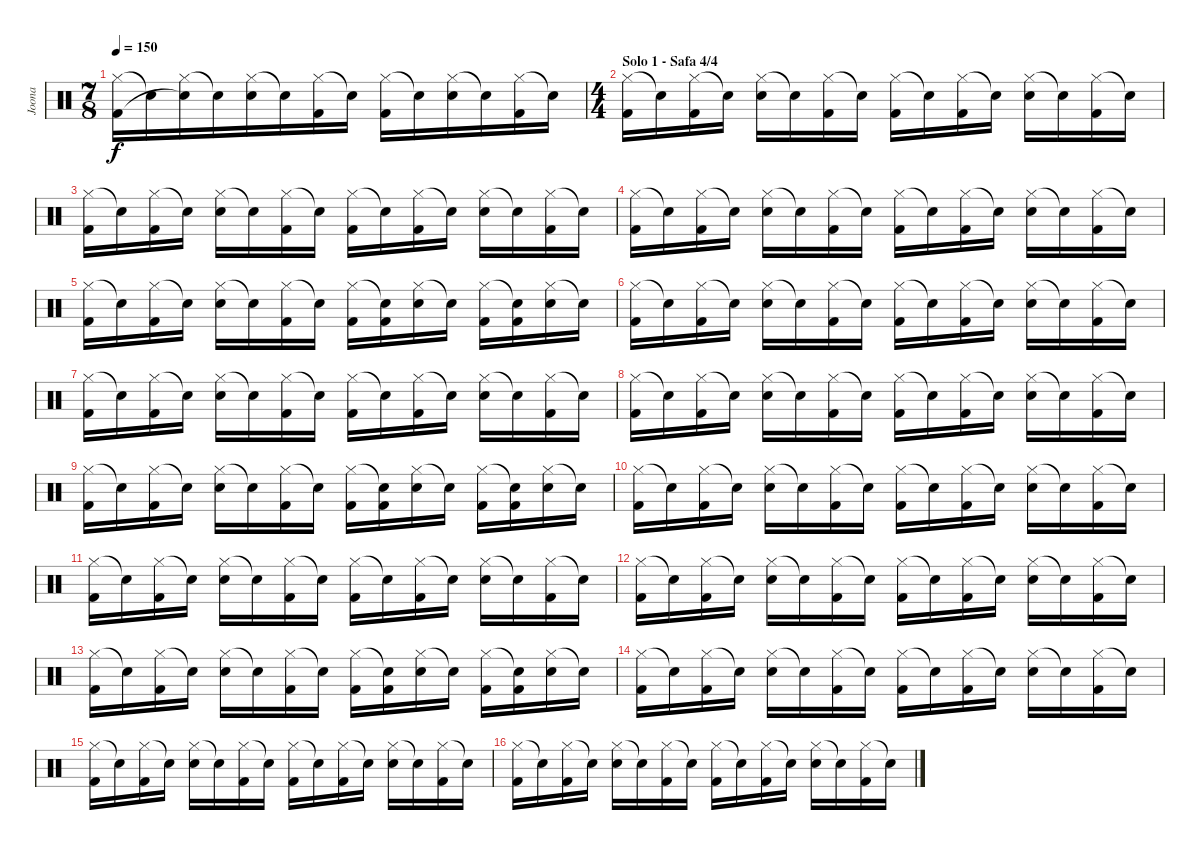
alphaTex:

\track ("Joona" "Joona") {instrument percussion}
\staff {score}
\articulation defaults
\ts (7 8)
\tempo 150
\clef neutral
\ks c
("Hi-Hat (closed)" "Kick (hit) 2").16{dy f} "Snare (hit)"{t}.16 ("Hi-Hat (closed)" "Snare (hit)"{t}).16 "Snare (hit)"{t}.16 ("Hi-Hat (closed)" "Snare (hit) 2").16 "Snare (hit)"{t}.16 ("Hi-Hat (closed)" "Kick (hit) 2").16 "Snare (hit)"{t}.16 ("Hi-Hat (closed)" "Kick (hit) 2").16 "Snare (hit)"{t}.16 ("Hi-Hat (closed)" "Snare (hit) 2").16 "Snare (hit)"{t}.16 ("Hi-Hat (closed)" "Kick (hit) 2").16 "Snare (hit)"{t}.16 |
\ts (4 4)
\section ("" "Solo 1 - Safa 4/4")
("Hi-Hat (closed)" "Kick (hit) 2").16 "Snare (hit)"{t}.16 ("Hi-Hat (closed)" "Kick (hit) 2").16 "Snare (hit)"{t}.16 ("Hi-Hat (closed)" "Snare (hit) 2").16 "Snare (hit)"{t}.16 ("Hi-Hat (closed)" "Kick (hit) 2").16 "Snare (hit)"{t}.16 ("Hi-Hat (closed)" "Kick (hit) 2").16 "Snare (hit)"{t}.16 ("Hi-Hat (closed)" "Kick (hit) 2").16 "Snare (hit)"{t}.16 ("Hi-Hat (closed)" "Snare (hit) 2").16 "Snare (hit)"{t}.16 ("Hi-Hat (closed)" "Kick (hit) 2").16 "Snare (hit)"{t}.16 |
("Hi-Hat (closed)" "Kick (hit) 2").16 "Snare (hit)"{t}.16 ("Hi-Hat (closed)" "Kick (hit) 2").16 "Snare (hit)"{t}.16 ("Hi-Hat (closed)" "Snare (hit) 2").16 "Snare (hit)"{t}.16 ("Hi-Hat (closed)" "Kick (hit) 2").16 "Snare (hit)"{t}.16 ("Hi-Hat (closed)" "Kick (hit) 2").16 "Snare (hit)"{t}.16 ("Hi-Hat (closed)" "Kick (hit) 2").16 "Snare (hit)"{t}.16 ("Hi-Hat (closed)" "Snare (hit) 2").16 "Snare (hit)"{t}.16 ("Hi-Hat (closed)" "Kick (hit) 2").16 "Snare (hit)"{t}.16 |
("Hi-Hat (closed)" "Kick (hit) 2").16 "Snare (hit)"{t}.16 ("Hi-Hat (closed)" "Kick (hit) 2").16 "Snare (hit)"{t}.16 ("Hi-Hat (closed)" "Snare (hit) 2").16 "Snare (hit)"{t}.16 ("Hi-Hat (closed)" "Kick (hit) 2").16 "Snare (hit)"{t}.16 ("Hi-Hat (closed)" "Kick (hit) 2").16 "Snare (hit)"{t}.16 ("Hi-Hat (closed)" "Kick (hit) 2").16 "Snare (hit)"{t}.16 ("Hi-Hat (closed)" "Snare (hit) 2").16 "Snare (hit)"{t}.16 ("Hi-Hat (closed)" "Kick (hit) 2").16 "Snare (hit)"{t}.16 |
("Hi-Hat (closed)" "Kick (hit) 2").16 "Snare (hit)"{t}.16 ("Hi-Hat (closed)" "Kick (hit) 2").16 "Snare (hit)"{t}.16 ("Hi-Hat (closed)" "Snare (hit) 2").16 "Snare (hit)"{t}.16 ("Hi-Hat (closed)" "Kick (hit) 2").16 "Snare (hit)"{t}.16 ("Hi-Hat (closed)" "Kick (hit) 2").16 ("Snare (hit)"{t} "Kick (hit) 2").16 ("Hi-Hat (closed)" "Snare (hit) 2").16 "Snare (hit)"{t}.16 ("Hi-Hat (closed)" "Kick (hit) 2").16 ("Snare (hit)"{t} "Kick (hit) 2").16 ("Hi-Hat (closed)" "Snare (hit) 2").16 "Snare (hit)"{t}.16 |
("Hi-Hat (closed)" "Kick (hit) 2").16 "Snare (hit)"{t}.16 ("Hi-Hat (closed)" "Kick (hit) 2").16 "Snare (hit)"{t}.16 ("Hi-Hat (closed)" "Snare (hit) 2").16 "Snare (hit)"{t}.16 ("Hi-Hat (closed)" "Kick (hit) 2").16 "Snare (hit)"{t}.16 ("Hi-Hat (closed)" "Kick (hit) 2").16 "Snare (hit)"{t}.16 ("Hi-Hat (closed)" "Kick (hit) 2").16 "Snare (hit)"{t}.16 ("Hi-Hat (closed)" "Snare (hit) 2").16 "Snare (hit)"{t}.16 ("Hi-Hat (closed)" "Kick (hit) 2").16 "Snare (hit)"{t}.16 |
("Hi-Hat (closed)" "Kick (hit) 2").16 "Snare (hit)"{t}.16 ("Hi-Hat (closed)" "Kick (hit) 2").16 "Snare (hit)"{t}.16 ("Hi-Hat (closed)" "Snare (hit) 2").16 "Snare (hit)"{t}.16 ("Hi-Hat (closed)" "Kick (hit) 2").16 "Snare (hit)"{t}.16 ("Hi-Hat (closed)" "Kick (hit) 2").16 "Snare (hit)"{t}.16 ("Hi-Hat (closed)" "Kick (hit) 2").16 "Snare (hit)"{t}.16 ("Hi-Hat (closed)" "Snare (hit) 2").16 "Snare (hit)"{t}.16 ("Hi-Hat (closed)" "Kick (hit) 2").16 "Snare (hit)"{t}.16 |
("Hi-Hat (closed)" "Kick (hit) 2").16 "Snare (hit)"{t}.16 ("Hi-Hat (closed)" "Kick (hit) 2").16 "Snare (hit)"{t}.16 ("Hi-Hat (closed)" "Snare (hit) 2").16 "Snare (hit)"{t}.16 ("Hi-Hat (closed)" "Kick (hit) 2").16 "Snare (hit)"{t}.16 ("Hi-Hat (closed)" "Kick (hit) 2").16 "Snare (hit)"{t}.16 ("Hi-Hat (closed)" "Kick (hit) 2").16 "Snare (hit)"{t}.16 ("Hi-Hat (closed)" "Snare (hit) 2").16 "Snare (hit)"{t}.16 ("Hi-Hat (closed)" "Kick (hit) 2").16 "Snare (hit)"{t}.16 |
("Hi-Hat (closed)" "Kick (hit) 2").16 "Snare (hit)"{t}.16 ("Hi-Hat (closed)" "Kick (hit) 2").16 "Snare (hit)"{t}.16 ("Hi-Hat (closed)" "Snare (hit) 2").16 "Snare (hit)"{t}.16 ("Hi-Hat (closed)" "Kick (hit) 2").16 "Snare (hit)"{t}.16 ("Hi-Hat (closed)" "Kick (hit) 2").16 ("Snare (hit)"{t} "Kick (hit) 2").16 ("Hi-Hat (closed)" "Snare (hit) 2").16 "Snare (hit)"{t}.16 ("Hi-Hat (closed)" "Kick (hit) 2").16 ("Snare (hit)"{t} "Kick (hit) 2").16 ("Hi-Hat (closed)" "Snare (hit) 2").16 "Snare (hit)"{t}.16 |
("Hi-Hat (closed)" "Kick (hit) 2").16 "Snare (hit)"{t}.16 ("Hi-Hat (closed)" "Kick (hit) 2").16 "Snare (hit)"{t}.16 ("Hi-Hat (closed)" "Snare (hit) 2").16 "Snare (hit)"{t}.16 ("Hi-Hat (closed)" "Kick (hit) 2").16 "Snare (hit)"{t}.16 ("Hi-Hat (closed)" "Kick (hit) 2").16 "Snare (hit)"{t}.16 ("Hi-Hat (closed)" "Kick (hit) 2").16 "Snare (hit)"{t}.16 ("Hi-Hat (closed)" "Snare (hit) 2").16 "Snare (hit)"{t}.16 ("Hi-Hat (closed)" "Kick (hit) 2").16 "Snare (hit)"{t}.16 |
("Hi-Hat (closed)" "Kick (hit) 2").16 "Snare (hit)"{t}.16 ("Hi-Hat (closed)" "Kick (hit) 2").16 "Snare (hit)"{t}.16 ("Hi-Hat (closed)" "Snare (hit) 2").16 "Snare (hit)"{t}.16 ("Hi-Hat (closed)" "Kick (hit) 2").16 "Snare (hit)"{t}.16 ("Hi-Hat (closed)" "Kick (hit) 2").16 "Snare (hit)"{t}.16 ("Hi-Hat (closed)" "Kick (hit) 2").16 "Snare (hit)"{t}.16 ("Hi-Hat (closed)" "Snare (hit) 2").16 "Snare (hit)"{t}.16 ("Hi-Hat (closed)" "Kick (hit) 2").16 "Snare (hit)"{t}.16 |
("Hi-Hat (closed)" "Kick (hit) 2").16 "Snare (hit)"{t}.16 ("Hi-Hat (closed)" "Kick (hit) 2").16 "Snare (hit)"{t}.16 ("Hi-Hat (closed)" "Snare (hit) 2").16 "Snare (hit)"{t}.16 ("Hi-Hat (closed)" "Kick (hit) 2").16 "Snare (hit)"{t}.16 ("Hi-Hat (closed)" "Kick (hit) 2").16 "Snare (hit)"{t}.16 ("Hi-Hat (closed)" "Kick (hit) 2").16 "Snare (hit)"{t}.16 ("Hi-Hat (closed)" "Snare (hit) 2").16 "Snare (hit)"{t}.16 ("Hi-Hat (closed)" "Kick (hit) 2").16 "Snare (hit)"{t}.16 |
("Hi-Hat (closed)" "Kick (hit) 2").16 "Snare (hit)"{t}.16 ("Hi-Hat (closed)" "Kick (hit) 2").16 "Snare (hit)"{t}.16 ("Hi-Hat (closed)" "Snare (hit) 2").16 "Snare (hit)"{t}.16 ("Hi-Hat (closed)" "Kick (hit) 2").16 "Snare (hit)"{t}.16 ("Hi-Hat (closed)" "Kick (hit) 2").16 ("Snare (hit)"{t} "Kick (hit) 2").16 ("Hi-Hat (closed)" "Snare (hit) 2").16 "Snare (hit)"{t}.16 ("Hi-Hat (closed)" "Kick (hit) 2").16 ("Snare (hit)"{t} "Kick (hit) 2").16 ("Hi-Hat (closed)" "Snare (hit) 2").16 "Snare (hit)"{t}.16 |
("Hi-Hat (closed)" "Kick (hit) 2").16 "Snare (hit)"{t}.16 ("Hi-Hat (closed)" "Kick (hit) 2").16 "Snare (hit)"{t}.16 ("Hi-Hat (closed)" "Snare (hit) 2").16 "Snare (hit)"{t}.16 ("Hi-Hat (closed)" "Kick (hit) 2").16 "Snare (hit)"{t}.16 ("Hi-Hat (closed)" "Kick (hit) 2").16 "Snare (hit)"{t}.16 ("Hi-Hat (closed)" "Kick (hit) 2").16 "Snare (hit)"{t}.16 ("Hi-Hat (closed)" "Snare (hit) 2").16 "Snare (hit)"{t}.16 ("Hi-Hat (closed)" "Kick (hit) 2").16 "Snare (hit)"{t}.16 |
("Hi-Hat (closed)" "Kick (hit) 2").16 "Snare (hit)"{t}.16 ("Hi-Hat (closed)" "Kick (hit) 2").16 "Snare (hit)"{t}.16 ("Hi-Hat (closed)" "Snare (hit) 2").16 "Snare (hit)"{t}.16 ("Hi-Hat (closed)" "Kick (hit) 2").16 "Snare (hit)"{t}.16 ("Hi-Hat (closed)" "Kick (hit) 2").16 "Snare (hit)"{t}.16 ("Hi-Hat (closed)" "Kick (hit) 2").16 "Snare (hit)"{t}.16 ("Hi-Hat (closed)" "Snare (hit) 2").16 "Snare (hit)"{t}.16 ("Hi-Hat (closed)" "Kick (hit) 2").16 "Snare (hit)"{t}.16 |
("Hi-Hat (closed)" "Kick (hit) 2").16 "Snare (hit)"{t}.16 ("Hi-Hat (closed)" "Kick (hit) 2").16 "Snare (hit)"{t}.16 ("Hi-Hat (closed)" "Snare (hit) 2").16 "Snare (hit)"{t}.16 ("Hi-Hat (closed)" "Kick (hit) 2").16 "Snare (hit)"{t}.16 ("Hi-Hat (closed)" "Kick (hit) 2").16 "Snare (hit)"{t}.16 ("Hi-Hat (closed)" "Kick (hit) 2").16 "Snare (hit)"{t}.16 ("Hi-Hat (closed)" "Snare (hit) 2").16 "Snare (hit)"{t}.16 ("Hi-Hat (closed)" "Kick (hit) 2").16 "Snare (hit)"{t}.16
